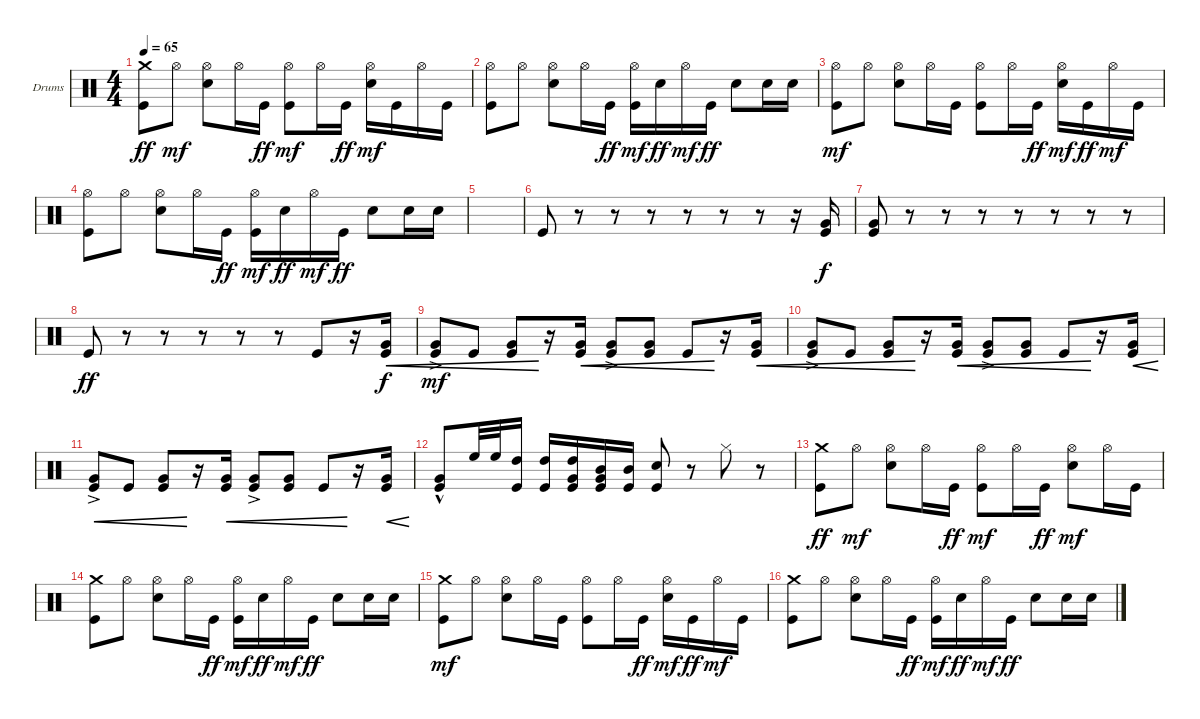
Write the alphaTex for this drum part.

\defaultSystemsLayout 4
\bracketExtendMode groupsimilarinstruments
\firstSystemTrackNameOrientation horizontal
\otherSystemsTrackNameOrientation horizontal
\track ("Drumkit" "Drums") {instrument percussion}
\staff {score}
\articulation defaults
\ts (4 4)
\tempo 65
\clef neutral
\ks c
("Kick (hit)" "Crash medium (hit)").8{dy ff} "Hi-Hat (open)".8{dy mf} ("Hi-Hat (open)" "Snare (hit) 2").8 "Hi-Hat (open)".16 "Kick (hit)".16{dy ff} ("Hi-Hat (open)" "Kick (hit)").8{dy mf} "Hi-Hat (open)".16 "Kick (hit)".16{dy ff} ("Snare (hit) 2" "Hi-Hat (open)").16{dy mf} "Kick (hit)".16 "Hi-Hat (open)".16 "Kick (hit)".16 |
("Hi-Hat (open)" "Kick (hit)").8 "Hi-Hat (open)".8 ("Hi-Hat (open)" "Snare (hit) 2").8 "Hi-Hat (open)".16 "Kick (hit)".16{dy ff} ("Hi-Hat (open)" "Kick (hit)").16{dy mf} "Snare (hit) 2".16{dy ff} "Hi-Hat (open)".16{dy mf} "Kick (hit)".16{dy ff} "Snare (hit) 2".8 "Snare (hit) 2".16 "Snare (hit) 2".16 |
("Hi-Hat (open)" "Kick (hit)").8{dy mf} "Hi-Hat (open)".8 ("Hi-Hat (open)" "Snare (hit) 2").8 "Hi-Hat (open)".16 "Kick (hit)".16 ("Hi-Hat (open)" "Kick (hit)").8 "Hi-Hat (open)".16 "Kick (hit)".16{dy ff} ("Hi-Hat (open)" "Snare (hit) 2").16{dy mf} "Kick (hit)".16{dy ff} "Hi-Hat (open)".16{dy mf} "Kick (hit)".16 |
("Hi-Hat (open)" "Kick (hit)").8 "Hi-Hat (open)".8 ("Hi-Hat (open)" "Snare (hit) 2").8 "Hi-Hat (open)".16 "Kick (hit)".16{dy ff} ("Hi-Hat (open)" "Kick (hit)").16{dy mf} "Snare (hit) 2".16{dy ff} "Hi-Hat (open)".16{dy mf} "Kick (hit)".16{dy ff} "Snare (hit) 2".8 "Snare (hit) 2".16 "Snare (hit) 2".16 |
|
"Kick (hit)".8 r.8 r.8 r.8 r.8 r.8 r.8 r.16 ("Kick (hit)" "Very Low Tom (hit)").16{dy f} |
("Kick (hit)" "Very Low Tom (hit)").8 r.8 r.8 r.8 r.8 r.8 r.8 r.8 |
"Kick (hit)".8{dy ff} r.8 r.8 r.8 r.8 r.8 "Kick (hit)".8 r.16 ("Kick (hit)" "Very Low Tom (hit)").16{cre dy f} |
("Kick (hit)"{ac} "Very Low Tom (hit)").8{cre dy mf} "Kick (hit)".8{cre} ("Kick (hit)" "Very Low Tom (hit)").8{cre} r.16 ("Kick (hit)" "Very Low Tom (hit)").16{cre} ("Kick (hit)"{ac} "Very Low Tom (hit)").8{cre} ("Kick (hit)" "Very Low Tom (hit)").8{cre} "Kick (hit)".8{cre} r.16 ("Kick (hit)" "Very Low Tom (hit)").16{cre} |
("Kick (hit)"{ac} "Very Low Tom (hit)").8{cre} "Kick (hit)".8{cre} ("Kick (hit)" "Very Low Tom (hit)").8{cre} r.16 ("Kick (hit)" "Very Low Tom (hit)").16{cre} ("Kick (hit)"{ac} "Very Low Tom (hit)").8{cre} ("Kick (hit)" "Very Low Tom (hit)").8{cre} "Kick (hit)".8{cre} r.16 ("Kick (hit)" "Very Low Tom (hit)").16{cre} |
("Kick (hit)"{ac} "Very Low Tom (hit)").8{cre} "Kick (hit)".8{cre} ("Kick (hit)" "Very Low Tom (hit)").8{cre} r.16 ("Kick (hit)" "Very Low Tom (hit)").16{cre} ("Kick (hit)"{ac} "Very Low Tom (hit)").8{cre} ("Kick (hit)" "Very Low Tom (hit)").8{cre} "Kick (hit)".8{cre} r.16 ("Kick (hit)" "Very Low Tom (hit)").16{cre} |
("Kick (hit)"{hac} "Very Low Tom (hit)").8 "High Floor Tom (hit)".32 "High Floor Tom (hit)".32 ("High Tom (hit)" "Kick (hit)").16 ("Kick (hit)" "High Tom (hit)").16 ("Kick (hit)" "High Tom (hit)" "Very Low Tom (hit)").16 ("Kick (hit)" "Very Low Tom (hit)" "Mid Tom (hit)").16 ("Kick (hit)" "Mid Tom (hit)").16 ("Kick (hit)" "Snare (hit) 2").8 r.8 "Hi-Hat (closed)".8 r.8 |
("Kick (hit)" "Crash medium (hit)").8{dy ff} "Hi-Hat (open)".8{dy mf} ("Hi-Hat (open)" "Snare (hit) 2").8 "Hi-Hat (open)".16 "Kick (hit)".16{dy ff} ("Hi-Hat (open)" "Kick (hit)").8{dy mf} "Hi-Hat (open)".16 "Kick (hit)".16{dy ff} ("Snare (hit) 2" "Hi-Hat (open)").8{dy mf} "Hi-Hat (open)".16 "Kick (hit)".16 |
("Kick (hit)" "Crash medium (hit)").8 "Hi-Hat (open)".8 ("Hi-Hat (open)" "Snare (hit) 2").8 "Hi-Hat (open)".16 "Kick (hit)".16{dy ff} ("Hi-Hat (open)" "Kick (hit)").16{dy mf} "Snare (hit) 2".16{dy ff} "Hi-Hat (open)".16{dy mf} "Kick (hit)".16{dy ff} "Snare (hit) 2".8 "Snare (hit) 2".16 "Snare (hit) 2".16 |
("Kick (hit)" "Crash medium (hit)").8{dy mf} "Hi-Hat (open)".8 ("Hi-Hat (open)" "Snare (hit) 2").8 "Hi-Hat (open)".16 "Kick (hit)".16 ("Hi-Hat (open)" "Kick (hit)").8 "Hi-Hat (open)".16 "Kick (hit)".16{dy ff} ("Hi-Hat (open)" "Snare (hit) 2").16{dy mf} "Kick (hit)".16{dy ff} "Hi-Hat (open)".16{dy mf} "Kick (hit)".16 |
("Kick (hit)" "Crash medium (hit)").8 "Hi-Hat (open)".8 ("Hi-Hat (open)" "Snare (hit) 2").8 "Hi-Hat (open)".16 "Kick (hit)".16{dy ff} ("Hi-Hat (open)" "Kick (hit)").16{dy mf} "Snare (hit) 2".16{dy ff} "Hi-Hat (open)".16{dy mf} "Kick (hit)".16{dy ff} "Snare (hit) 2".8 "Snare (hit) 2".16 "Snare (hit) 2".16
